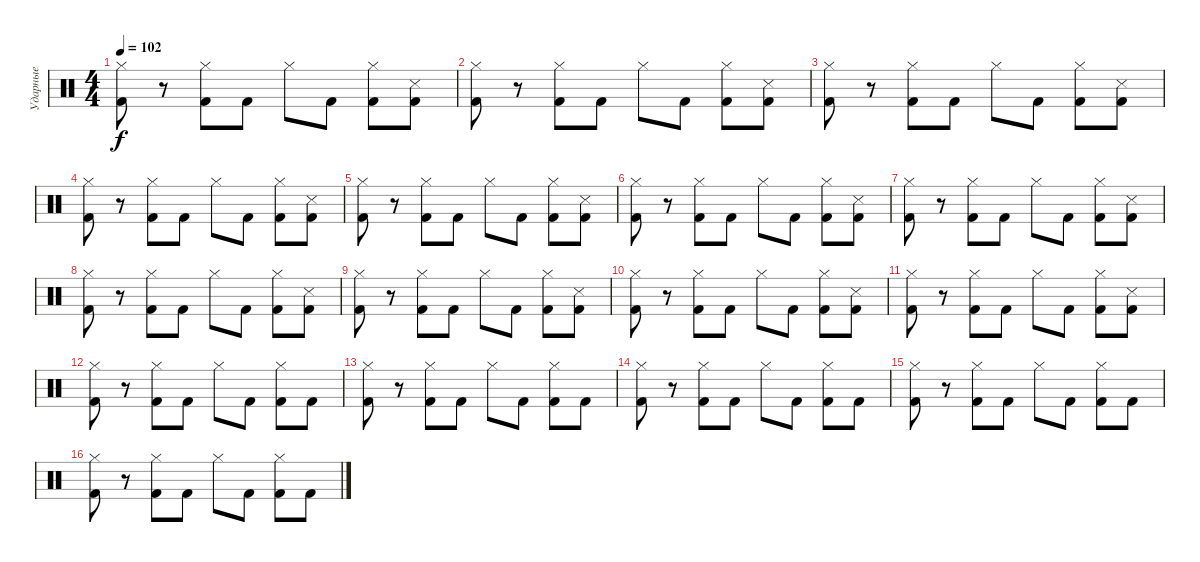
\track ("Ударные" "Ударные") {instrument percussion}
\staff {score}
\articulation defaults
\ts (4 4)
\tempo 102
\clef neutral
\ks c
("Hi-Hat (closed)" "Kick (hit) 2").8{dy f} r.8 ("Hi-Hat (closed)" "Kick (hit) 2").8 "Kick (hit) 2".8 "Hi-Hat (closed)".8 "Kick (hit) 2".8 ("Hi-Hat (closed)" "Kick (hit) 2").8 ("Metronome (hit)" "Kick (hit) 2").8 |
("Hi-Hat (closed)" "Kick (hit) 2").8 r.8 ("Hi-Hat (closed)" "Kick (hit) 2").8 "Kick (hit) 2".8 "Hi-Hat (closed)".8 "Kick (hit) 2".8 ("Hi-Hat (closed)" "Kick (hit) 2").8 ("Metronome (hit)" "Kick (hit) 2").8 |
("Hi-Hat (closed)" "Kick (hit) 2").8 r.8 ("Hi-Hat (closed)" "Kick (hit) 2").8 "Kick (hit) 2".8 "Hi-Hat (closed)".8 "Kick (hit) 2".8 ("Hi-Hat (closed)" "Kick (hit) 2").8 ("Metronome (hit)" "Kick (hit) 2").8 |
("Hi-Hat (closed)" "Kick (hit) 2").8 r.8 ("Hi-Hat (closed)" "Kick (hit) 2").8 "Kick (hit) 2".8 "Hi-Hat (closed)".8 "Kick (hit) 2".8 ("Hi-Hat (closed)" "Kick (hit) 2").8 ("Metronome (hit)" "Kick (hit) 2").8 |
("Hi-Hat (closed)" "Kick (hit) 2").8 r.8 ("Hi-Hat (closed)" "Kick (hit) 2").8 "Kick (hit) 2".8 "Hi-Hat (closed)".8 "Kick (hit) 2".8 ("Hi-Hat (closed)" "Kick (hit) 2").8 ("Metronome (hit)" "Kick (hit) 2").8 |
("Hi-Hat (closed)" "Kick (hit) 2").8 r.8 ("Hi-Hat (closed)" "Kick (hit) 2").8 "Kick (hit) 2".8 "Hi-Hat (closed)".8 "Kick (hit) 2".8 ("Hi-Hat (closed)" "Kick (hit) 2").8 ("Metronome (hit)" "Kick (hit) 2").8 |
("Hi-Hat (closed)" "Kick (hit) 2").8 r.8 ("Hi-Hat (closed)" "Kick (hit) 2").8 "Kick (hit) 2".8 "Hi-Hat (closed)".8 "Kick (hit) 2".8 ("Hi-Hat (closed)" "Kick (hit) 2").8 ("Metronome (hit)" "Kick (hit) 2").8 |
("Hi-Hat (closed)" "Kick (hit) 2").8 r.8 ("Hi-Hat (closed)" "Kick (hit) 2").8 "Kick (hit) 2".8 "Hi-Hat (closed)".8 "Kick (hit) 2".8 ("Hi-Hat (closed)" "Kick (hit) 2").8 ("Metronome (hit)" "Kick (hit) 2").8 |
("Hi-Hat (closed)" "Kick (hit) 2").8 r.8 ("Hi-Hat (closed)" "Kick (hit) 2").8 "Kick (hit) 2".8 "Hi-Hat (closed)".8 "Kick (hit) 2".8 ("Hi-Hat (closed)" "Kick (hit) 2").8 ("Metronome (hit)" "Kick (hit) 2").8 |
("Hi-Hat (closed)" "Kick (hit) 2").8 r.8 ("Hi-Hat (closed)" "Kick (hit) 2").8 "Kick (hit) 2".8 "Hi-Hat (closed)".8 "Kick (hit) 2".8 ("Hi-Hat (closed)" "Kick (hit) 2").8 ("Metronome (hit)" "Kick (hit) 2").8 |
("Hi-Hat (closed)" "Kick (hit) 2").8 r.8 ("Hi-Hat (closed)" "Kick (hit) 2").8 "Kick (hit) 2".8 "Hi-Hat (closed)".8 "Kick (hit) 2".8 ("Hi-Hat (closed)" "Kick (hit) 2").8 ("Metronome (hit)" "Kick (hit) 2").8 |
("Hi-Hat (closed)" "Kick (hit) 2").8 r.8 ("Hi-Hat (closed)" "Kick (hit) 2").8 "Kick (hit) 2".8 "Hi-Hat (closed)".8 "Kick (hit) 2".8 ("Hi-Hat (closed)" "Kick (hit) 2").8 "Kick (hit) 2".8 |
("Hi-Hat (closed)" "Kick (hit) 2").8 r.8 ("Hi-Hat (closed)" "Kick (hit) 2").8 "Kick (hit) 2".8 "Hi-Hat (closed)".8 "Kick (hit) 2".8 ("Hi-Hat (closed)" "Kick (hit) 2").8 "Kick (hit) 2".8 |
("Hi-Hat (closed)" "Kick (hit) 2").8 r.8 ("Hi-Hat (closed)" "Kick (hit) 2").8 "Kick (hit) 2".8 "Hi-Hat (closed)".8 "Kick (hit) 2".8 ("Hi-Hat (closed)" "Kick (hit) 2").8 "Kick (hit) 2".8 |
("Hi-Hat (closed)" "Kick (hit) 2").8 r.8 ("Hi-Hat (closed)" "Kick (hit) 2").8 "Kick (hit) 2".8 "Hi-Hat (closed)".8 "Kick (hit) 2".8 ("Hi-Hat (closed)" "Kick (hit) 2").8 "Kick (hit) 2".8 |
("Hi-Hat (closed)" "Kick (hit) 2").8 r.8 ("Hi-Hat (closed)" "Kick (hit) 2").8 "Kick (hit) 2".8 "Hi-Hat (closed)".8 "Kick (hit) 2".8 ("Hi-Hat (closed)" "Kick (hit) 2").8 "Kick (hit) 2".8
